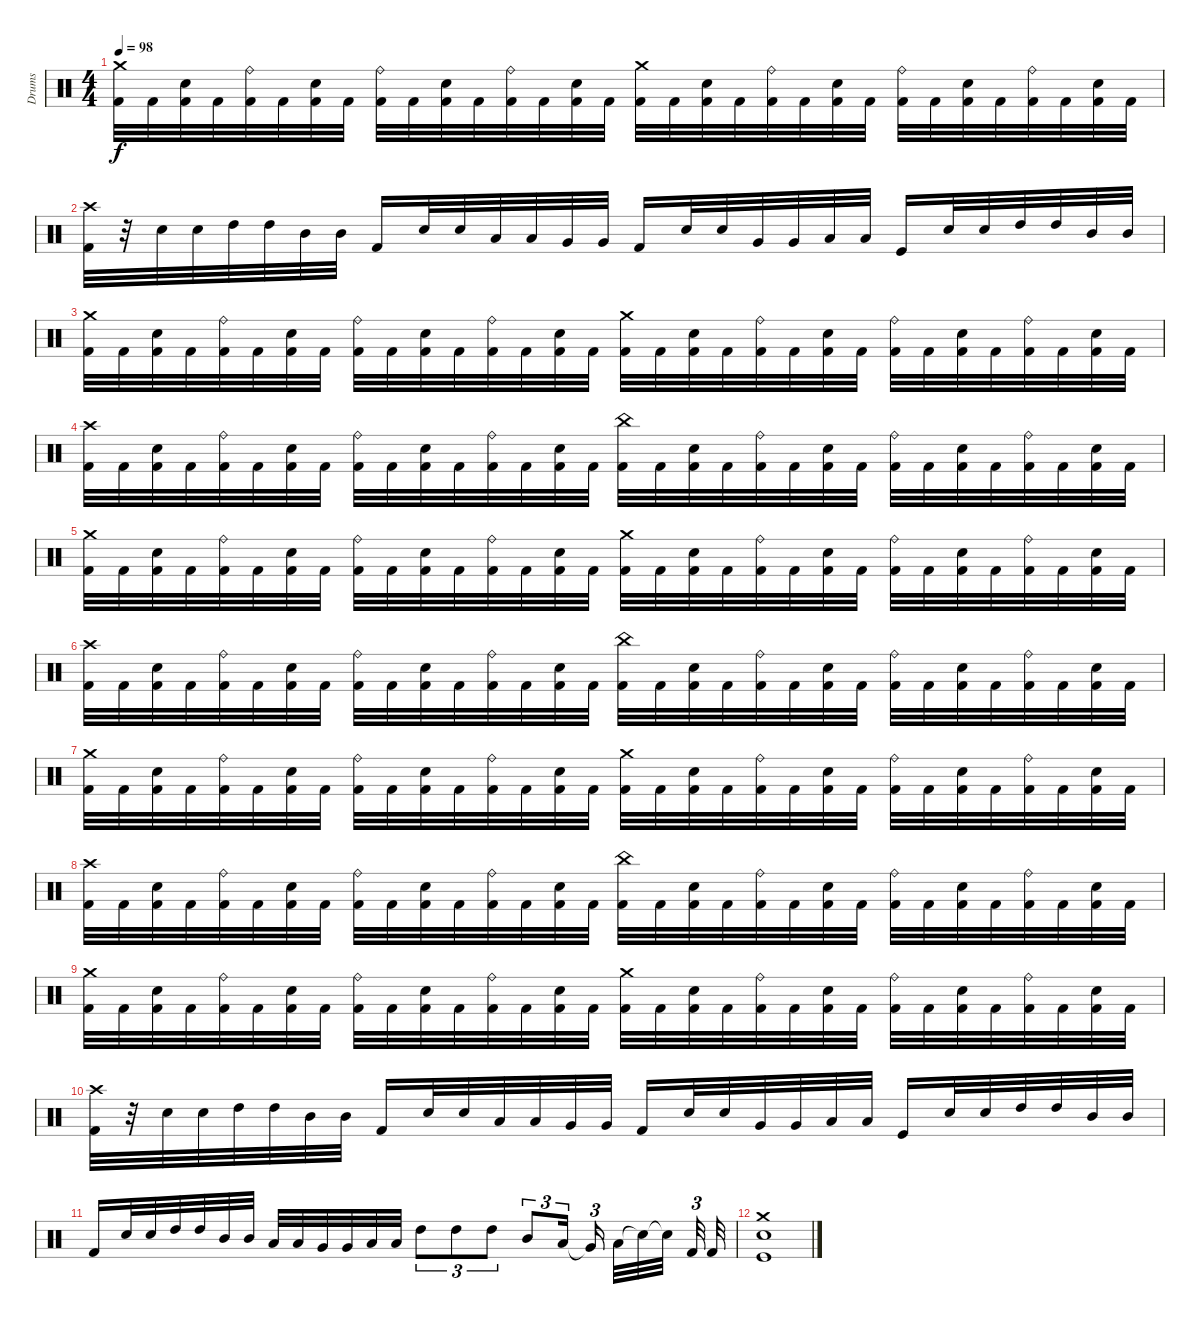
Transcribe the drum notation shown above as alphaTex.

\track ("Drums" "Drums") {instrument percussion}
\staff {score}
\articulation defaults
\ts (4 4)
\tempo 98
\clef neutral
\ks c
("Crash medium (hit)" "Kick (hit) 2").32{dy f} "Kick (hit) 2".32 ("Electric Snare (hit)" "Kick (hit) 2").32 "Kick (hit) 2".32 ("Ride (bell)" "Kick (hit) 2").32 "Kick (hit) 2".32 ("Electric Snare (hit)" "Kick (hit) 2").32 "Kick (hit) 2".32 ("Ride (bell)" "Kick (hit) 2").32 "Kick (hit) 2".32 ("Electric Snare (hit)" "Kick (hit) 2").32 "Kick (hit) 2".32 ("Ride (bell)" "Kick (hit) 2").32 "Kick (hit) 2".32 ("Electric Snare (hit)" "Kick (hit) 2").32 "Kick (hit) 2".32 ("Crash medium (hit)" "Kick (hit) 2").32 "Kick (hit) 2".32 ("Electric Snare (hit)" "Kick (hit) 2").32 "Kick (hit) 2".32 ("Ride (bell)" "Kick (hit) 2").32 "Kick (hit) 2".32 ("Electric Snare (hit)" "Kick (hit) 2").32 "Kick (hit) 2".32 ("Ride (bell)" "Kick (hit) 2").32 "Kick (hit) 2".32 ("Electric Snare (hit)" "Kick (hit) 2").32 "Kick (hit) 2".32 ("Ride (bell)" "Kick (hit) 2").32 "Kick (hit) 2".32 ("Electric Snare (hit)" "Kick (hit) 2").32 "Kick (hit) 2".32 |
("Crash high (hit)" "Kick (hit) 2").32 r.32 "Electric Snare (hit)".32 "Electric Snare (hit)".32 "High Tom (hit)".32 "High Tom (hit)".32 "Mid Tom (hit)".32 "Mid Tom (hit)".32 "Kick (hit) 2".16 "Electric Snare (hit)".32 "Electric Snare (hit)".32 "Low Tom (hit)".32 "Low Tom (hit)".32 "Very Low Tom (hit)".32 "Very Low Tom (hit)".32 "Kick (hit) 2".16 "Electric Snare (hit)".32 "Electric Snare (hit)".32 "Very Low Tom (hit)".32 "Very Low Tom (hit)".32 "Low Floor Tom (hit)".32 "Low Floor Tom (hit)".32 "Kick (hit)".16 "Electric Snare (hit)".32 "Electric Snare (hit)".32 "High Tom (hit)".32 "High Tom (hit)".32 "Mid Tom (hit)".32 "Mid Tom (hit)".32 |
("Crash medium (hit)" "Kick (hit) 2").32 "Kick (hit) 2".32 ("Electric Snare (hit)" "Kick (hit) 2").32 "Kick (hit) 2".32 ("Ride (bell)" "Kick (hit) 2").32 "Kick (hit) 2".32 ("Electric Snare (hit)" "Kick (hit) 2").32 "Kick (hit) 2".32 ("Ride (bell)" "Kick (hit) 2").32 "Kick (hit) 2".32 ("Electric Snare (hit)" "Kick (hit) 2").32 "Kick (hit) 2".32 ("Ride (bell)" "Kick (hit) 2").32 "Kick (hit) 2".32 ("Electric Snare (hit)" "Kick (hit) 2").32 "Kick (hit) 2".32 ("Crash medium (hit)" "Kick (hit) 2").32 "Kick (hit) 2".32 ("Electric Snare (hit)" "Kick (hit) 2").32 "Kick (hit) 2".32 ("Ride (bell)" "Kick (hit) 2").32 "Kick (hit) 2".32 ("Electric Snare (hit)" "Kick (hit) 2").32 "Kick (hit) 2".32 ("Ride (bell)" "Kick (hit) 2").32 "Kick (hit) 2".32 ("Electric Snare (hit)" "Kick (hit) 2").32 "Kick (hit) 2".32 ("Ride (bell)" "Kick (hit) 2").32 "Kick (hit) 2".32 ("Electric Snare (hit)" "Kick (hit) 2").32 "Kick (hit) 2".32 |
("Crash high (hit)" "Kick (hit) 2").32 "Kick (hit) 2".32 ("Electric Snare (hit)" "Kick (hit) 2").32 "Kick (hit) 2".32 ("Ride (bell)" "Kick (hit) 2").32 "Kick (hit) 2".32 ("Electric Snare (hit)" "Kick (hit) 2").32 "Kick (hit) 2".32 ("Ride (bell)" "Kick (hit) 2").32 "Kick (hit) 2".32 ("Electric Snare (hit)" "Kick (hit) 2").32 "Kick (hit) 2".32 ("Ride (bell)" "Kick (hit) 2").32 "Kick (hit) 2".32 ("Electric Snare (hit)" "Kick (hit) 2").32 "Kick (hit) 2".32 ("China (hit)" "Kick (hit) 2").32 "Kick (hit) 2".32 ("Electric Snare (hit)" "Kick (hit) 2").32 "Kick (hit) 2".32 ("Ride (bell)" "Kick (hit) 2").32 "Kick (hit) 2".32 ("Electric Snare (hit)" "Kick (hit) 2").32 "Kick (hit) 2".32 ("Ride (bell)" "Kick (hit) 2").32 "Kick (hit) 2".32 ("Electric Snare (hit)" "Kick (hit) 2").32 "Kick (hit) 2".32 ("Ride (bell)" "Kick (hit) 2").32 "Kick (hit) 2".32 ("Electric Snare (hit)" "Kick (hit) 2").32 "Kick (hit) 2".32 |
("Crash medium (hit)" "Kick (hit) 2").32 "Kick (hit) 2".32 ("Electric Snare (hit)" "Kick (hit) 2").32 "Kick (hit) 2".32 ("Ride (bell)" "Kick (hit) 2").32 "Kick (hit) 2".32 ("Electric Snare (hit)" "Kick (hit) 2").32 "Kick (hit) 2".32 ("Ride (bell)" "Kick (hit) 2").32 "Kick (hit) 2".32 ("Electric Snare (hit)" "Kick (hit) 2").32 "Kick (hit) 2".32 ("Ride (bell)" "Kick (hit) 2").32 "Kick (hit) 2".32 ("Electric Snare (hit)" "Kick (hit) 2").32 "Kick (hit) 2".32 ("Crash medium (hit)" "Kick (hit) 2").32 "Kick (hit) 2".32 ("Electric Snare (hit)" "Kick (hit) 2").32 "Kick (hit) 2".32 ("Ride (bell)" "Kick (hit) 2").32 "Kick (hit) 2".32 ("Electric Snare (hit)" "Kick (hit) 2").32 "Kick (hit) 2".32 ("Ride (bell)" "Kick (hit) 2").32 "Kick (hit) 2".32 ("Electric Snare (hit)" "Kick (hit) 2").32 "Kick (hit) 2".32 ("Ride (bell)" "Kick (hit) 2").32 "Kick (hit) 2".32 ("Electric Snare (hit)" "Kick (hit) 2").32 "Kick (hit) 2".32 |
("Crash high (hit)" "Kick (hit) 2").32 "Kick (hit) 2".32 ("Electric Snare (hit)" "Kick (hit) 2").32 "Kick (hit) 2".32 ("Ride (bell)" "Kick (hit) 2").32 "Kick (hit) 2".32 ("Electric Snare (hit)" "Kick (hit) 2").32 "Kick (hit) 2".32 ("Ride (bell)" "Kick (hit) 2").32 "Kick (hit) 2".32 ("Electric Snare (hit)" "Kick (hit) 2").32 "Kick (hit) 2".32 ("Ride (bell)" "Kick (hit) 2").32 "Kick (hit) 2".32 ("Electric Snare (hit)" "Kick (hit) 2").32 "Kick (hit) 2".32 ("China (hit)" "Kick (hit) 2").32 "Kick (hit) 2".32 ("Electric Snare (hit)" "Kick (hit) 2").32 "Kick (hit) 2".32 ("Ride (bell)" "Kick (hit) 2").32 "Kick (hit) 2".32 ("Electric Snare (hit)" "Kick (hit) 2").32 "Kick (hit) 2".32 ("Ride (bell)" "Kick (hit) 2").32 "Kick (hit) 2".32 ("Electric Snare (hit)" "Kick (hit) 2").32 "Kick (hit) 2".32 ("Ride (bell)" "Kick (hit) 2").32 "Kick (hit) 2".32 ("Electric Snare (hit)" "Kick (hit) 2").32 "Kick (hit) 2".32 |
("Crash medium (hit)" "Kick (hit) 2").32 "Kick (hit) 2".32 ("Electric Snare (hit)" "Kick (hit) 2").32 "Kick (hit) 2".32 ("Ride (bell)" "Kick (hit) 2").32 "Kick (hit) 2".32 ("Electric Snare (hit)" "Kick (hit) 2").32 "Kick (hit) 2".32 ("Ride (bell)" "Kick (hit) 2").32 "Kick (hit) 2".32 ("Electric Snare (hit)" "Kick (hit) 2").32 "Kick (hit) 2".32 ("Ride (bell)" "Kick (hit) 2").32 "Kick (hit) 2".32 ("Electric Snare (hit)" "Kick (hit) 2").32 "Kick (hit) 2".32 ("Crash medium (hit)" "Kick (hit) 2").32 "Kick (hit) 2".32 ("Electric Snare (hit)" "Kick (hit) 2").32 "Kick (hit) 2".32 ("Ride (bell)" "Kick (hit) 2").32 "Kick (hit) 2".32 ("Electric Snare (hit)" "Kick (hit) 2").32 "Kick (hit) 2".32 ("Ride (bell)" "Kick (hit) 2").32 "Kick (hit) 2".32 ("Electric Snare (hit)" "Kick (hit) 2").32 "Kick (hit) 2".32 ("Ride (bell)" "Kick (hit) 2").32 "Kick (hit) 2".32 ("Electric Snare (hit)" "Kick (hit) 2").32 "Kick (hit) 2".32 |
("Crash high (hit)" "Kick (hit) 2").32 "Kick (hit) 2".32 ("Electric Snare (hit)" "Kick (hit) 2").32 "Kick (hit) 2".32 ("Ride (bell)" "Kick (hit) 2").32 "Kick (hit) 2".32 ("Electric Snare (hit)" "Kick (hit) 2").32 "Kick (hit) 2".32 ("Ride (bell)" "Kick (hit) 2").32 "Kick (hit) 2".32 ("Electric Snare (hit)" "Kick (hit) 2").32 "Kick (hit) 2".32 ("Ride (bell)" "Kick (hit) 2").32 "Kick (hit) 2".32 ("Electric Snare (hit)" "Kick (hit) 2").32 "Kick (hit) 2".32 ("China (hit)" "Kick (hit) 2").32 "Kick (hit) 2".32 ("Electric Snare (hit)" "Kick (hit) 2").32 "Kick (hit) 2".32 ("Ride (bell)" "Kick (hit) 2").32 "Kick (hit) 2".32 ("Electric Snare (hit)" "Kick (hit) 2").32 "Kick (hit) 2".32 ("Ride (bell)" "Kick (hit) 2").32 "Kick (hit) 2".32 ("Electric Snare (hit)" "Kick (hit) 2").32 "Kick (hit) 2".32 ("Ride (bell)" "Kick (hit) 2").32 "Kick (hit) 2".32 ("Electric Snare (hit)" "Kick (hit) 2").32 "Kick (hit) 2".32 |
("Crash medium (hit)" "Kick (hit) 2").32 "Kick (hit) 2".32 ("Electric Snare (hit)" "Kick (hit) 2").32 "Kick (hit) 2".32 ("Ride (bell)" "Kick (hit) 2").32 "Kick (hit) 2".32 ("Electric Snare (hit)" "Kick (hit) 2").32 "Kick (hit) 2".32 ("Ride (bell)" "Kick (hit) 2").32 "Kick (hit) 2".32 ("Electric Snare (hit)" "Kick (hit) 2").32 "Kick (hit) 2".32 ("Ride (bell)" "Kick (hit) 2").32 "Kick (hit) 2".32 ("Electric Snare (hit)" "Kick (hit) 2").32 "Kick (hit) 2".32 ("Crash medium (hit)" "Kick (hit) 2").32 "Kick (hit) 2".32 ("Electric Snare (hit)" "Kick (hit) 2").32 "Kick (hit) 2".32 ("Ride (bell)" "Kick (hit) 2").32 "Kick (hit) 2".32 ("Electric Snare (hit)" "Kick (hit) 2").32 "Kick (hit) 2".32 ("Ride (bell)" "Kick (hit) 2").32 "Kick (hit) 2".32 ("Electric Snare (hit)" "Kick (hit) 2").32 "Kick (hit) 2".32 ("Ride (bell)" "Kick (hit) 2").32 "Kick (hit) 2".32 ("Electric Snare (hit)" "Kick (hit) 2").32 "Kick (hit) 2".32 |
("Crash high (hit)" "Kick (hit) 2").32 r.32 "Electric Snare (hit)".32 "Electric Snare (hit)".32 "High Tom (hit)".32 "High Tom (hit)".32 "Mid Tom (hit)".32 "Mid Tom (hit)".32 "Kick (hit) 2".16 "Electric Snare (hit)".32 "Electric Snare (hit)".32 "Low Tom (hit)".32 "Low Tom (hit)".32 "Very Low Tom (hit)".32 "Very Low Tom (hit)".32 "Kick (hit) 2".16 "Electric Snare (hit)".32 "Electric Snare (hit)".32 "Very Low Tom (hit)".32 "Very Low Tom (hit)".32 "Low Floor Tom (hit)".32 "Low Floor Tom (hit)".32 "Kick (hit)".16 "Electric Snare (hit)".32 "Electric Snare (hit)".32 "High Tom (hit)".32 "High Tom (hit)".32 "Mid Tom (hit)".32 "Mid Tom (hit)".32 |
"Kick (hit) 2".16 "Electric Snare (hit)".32 "Electric Snare (hit)".32 "High Tom (hit)".32 "High Tom (hit)".32 "Mid Tom (hit)".32 "Mid Tom (hit)".32 "Low Tom (hit)".32 "Low Tom (hit)".32 "Very Low Tom (hit)".32 "Very Low Tom (hit)".32 "Low Floor Tom (hit)".32 "Low Floor Tom (hit)".32 "High Tom (hit)".8{tu (3 2)} "High Tom (hit)".8{tu (3 2)} "High Tom (hit)".8{tu (3 2)} "Mid Tom (hit)".8{tu (3 2)} "Low Tom (hit)".16{tu (3 2)} "Very Low Tom (hit)"{t}.16{tu (3 2)} "Low Tom (hit)".32 "Snare (hit)"{t}.32 "Snare (hit)"{t}.32 "Kick (hit) 2".32{tu (3 2)} "Kick (hit) 2".32 |
("Crash medium (hit)" "Electric Snare (hit)" "Kick (hit)").1
